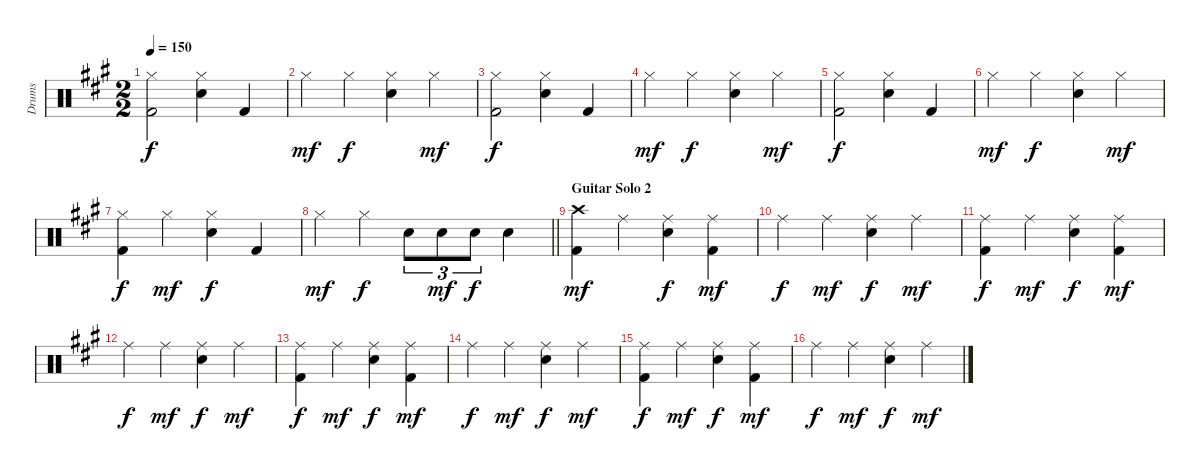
\track ("Drums" "Drums") {instrument percussion}
\staff {score}
\articulation defaults
\ts (2 2)
\tempo 150
\clef neutral
\ks a
("Hi-Hat (closed)" "Kick (hit) 2").2{dy f} ("Hi-Hat (closed)" "Electric Snare (hit)").4 "Kick (hit) 2".4 |
"Hi-Hat (closed)".4{dy mf} "Hi-Hat (closed)".4{dy f} ("Hi-Hat (closed)" "Electric Snare (hit)").4 "Hi-Hat (closed)".4{dy mf} |
("Hi-Hat (closed)" "Kick (hit) 2").2{dy f} ("Hi-Hat (closed)" "Electric Snare (hit)").4 "Kick (hit) 2".4 |
"Hi-Hat (closed)".4{dy mf} "Hi-Hat (closed)".4{dy f} ("Hi-Hat (closed)" "Electric Snare (hit)").4 "Hi-Hat (closed)".4{dy mf} |
("Hi-Hat (closed)" "Kick (hit) 2").2{dy f} ("Hi-Hat (closed)" "Electric Snare (hit)").4 "Kick (hit) 2".4 |
"Hi-Hat (closed)".4{dy mf} "Hi-Hat (closed)".4{dy f} ("Hi-Hat (closed)" "Electric Snare (hit)").4 "Hi-Hat (closed)".4{dy mf} |
("Hi-Hat (closed)" "Kick (hit) 2").4{dy f} "Hi-Hat (closed)".4{dy mf} ("Hi-Hat (closed)" "Electric Snare (hit)").4{dy f} "Kick (hit) 2".4 |
\barLineRight lightlight "Hi-Hat (closed)".4{dy mf} "Hi-Hat (closed)".4{dy f} "Electric Snare (hit)".8{tu (3 2)} "Electric Snare (hit)".8{tu (3 2) dy mf} "Electric Snare (hit)".8{tu (3 2) dy f} "Electric Snare (hit)".4
|
\section ("" "Guitar Solo 2")
("Crash high (hit)" "Kick (hit) 2").4{dy mf} "Ride (middle)".4 ("Ride (middle)" "Electric Snare (hit)").4{dy f} ("Ride (middle)" "Kick (hit) 2").4{dy mf} |
"Ride (middle)".4{dy f} "Ride (middle)".4{dy mf} ("Ride (middle)" "Electric Snare (hit)").4{dy f} "Ride (middle)".4{dy mf} |
("Ride (middle)" "Kick (hit) 2").4{dy f} "Ride (middle)".4{dy mf} ("Ride (middle)" "Electric Snare (hit)").4{dy f} ("Ride (middle)" "Kick (hit) 2").4{dy mf} |
"Ride (middle)".4{dy f} "Ride (middle)".4{dy mf} ("Ride (middle)" "Electric Snare (hit)").4{dy f} "Ride (middle)".4{dy mf} |
("Ride (middle)" "Kick (hit) 2").4{dy f} "Ride (middle)".4{dy mf} ("Ride (middle)" "Electric Snare (hit)").4{dy f} ("Ride (middle)" "Kick (hit) 2").4{dy mf} |
"Ride (middle)".4{dy f} "Ride (middle)".4{dy mf} ("Ride (middle)" "Electric Snare (hit)").4{dy f} "Ride (middle)".4{dy mf} |
("Ride (middle)" "Kick (hit) 2").4{dy f} "Ride (middle)".4{dy mf} ("Ride (middle)" "Electric Snare (hit)").4{dy f} ("Ride (middle)" "Kick (hit) 2").4{dy mf} |
"Ride (middle)".4{dy f} "Ride (middle)".4{dy mf} ("Ride (middle)" "Electric Snare (hit)").4{dy f} "Ride (middle)".4{dy mf}
